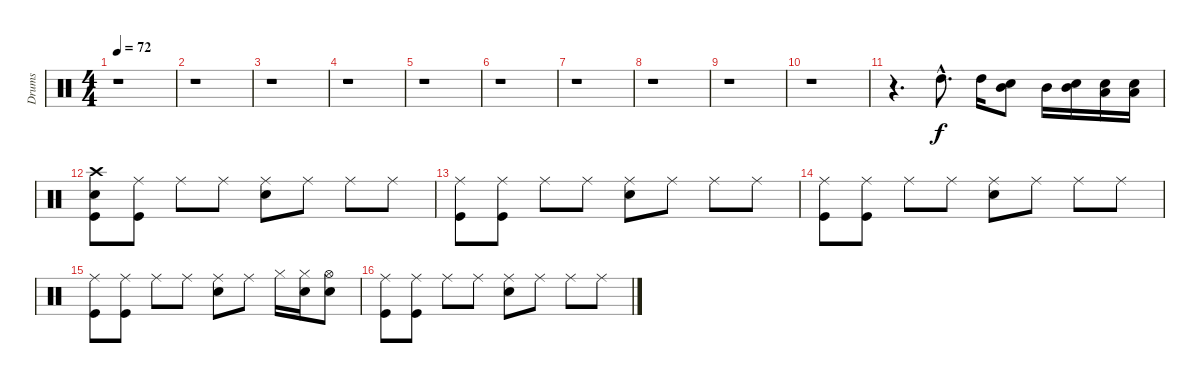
\track ("Drums" "Drums") {instrument percussion}
\staff {score}
\articulation defaults
\ts (4 4)
\tempo 72
\clef neutral
\ks c
r.1{dy f} |
r.1 |
r.1 |
r.1 |
r.1 |
r.1 |
r.1 |
r.1 |
r.1 |
r.1 |
r.4{d} "High Tom (hit)"{hac}.8{d} "High Tom (hit)".16 ("Snare (hit)" "Mid Tom (hit)").8 "Mid Tom (hit)".16 ("Snare (hit)" "Mid Tom (hit)").16 ("Snare (hit)" "Low Tom (hit)").16 ("Snare (hit)" "Low Tom (hit)").16 |
("Snare (hit)" "Crash high (hit)" "Kick (hit)").8 ("Ride (middle)" "Kick (hit)").8 "Ride (middle)".8 "Ride (middle)".8 ("Ride (middle)" "Snare (hit) 2").8 "Ride (middle)".8 "Ride (middle)".8 "Ride (middle)".8 |
("Ride (middle)" "Kick (hit)").8 ("Ride (middle)" "Kick (hit)").8 "Ride (middle)".8 "Ride (middle)".8 ("Ride (middle)" "Snare (hit) 2").8 "Ride (middle)".8 "Ride (middle)".8 "Ride (middle)".8 |
("Ride (middle)" "Kick (hit)").8 ("Ride (middle)" "Kick (hit)").8 "Ride (middle)".8 "Ride (middle)".8 ("Ride (middle)" "Snare (hit) 2").8 "Ride (middle)".8 "Ride (middle)".8 "Ride (middle)".8 |
("Ride (middle)" "Kick (hit)").8 ("Ride (middle)" "Kick (hit)").8 "Ride (middle)".8 "Ride (middle)".8 ("Ride (middle)" "Snare (hit) 2").8 "Ride (middle)".8 "Hi-Hat (closed)".16 ("Snare (hit)" "Hi-Hat (closed)").16 ("Snare (hit)" "Hi-Hat (open)").8 |
("Ride (middle)" "Kick (hit)").8 ("Ride (middle)" "Kick (hit)").8 "Ride (middle)".8 "Ride (middle)".8 ("Ride (middle)" "Snare (hit) 2").8 "Ride (middle)".8 "Ride (middle)".8 "Ride (middle)".8
